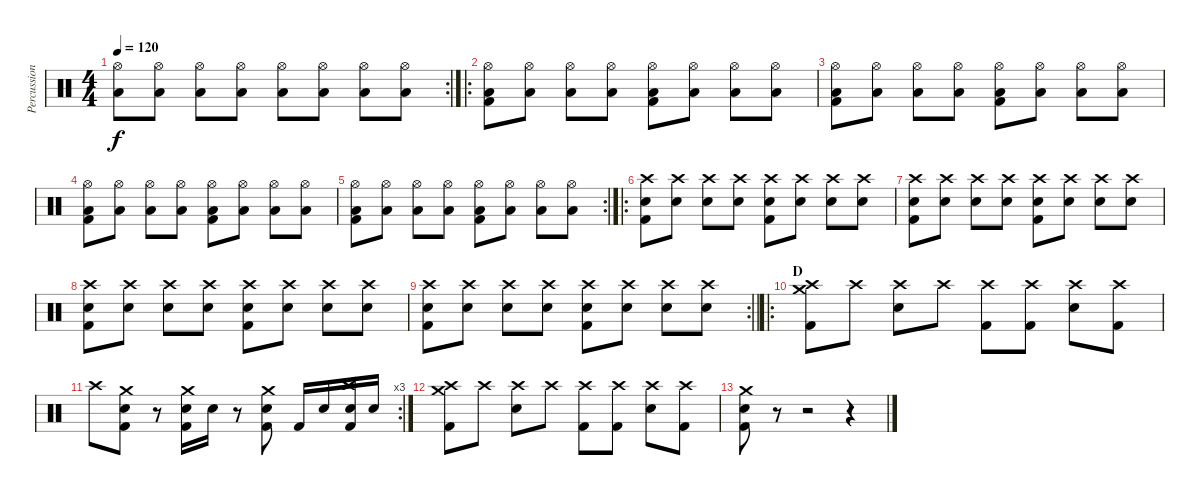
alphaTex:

\track ("Percussions" "Percussion") {instrument percussion}
\staff
\articulation defaults
\rc 2
\ts (4 4)
\tempo 120
\clef neutral
\ks c
("Hi-Hat (open)" "Low Tom (hit)").8{dy f} ("Hi-Hat (open)" "Low Tom (hit)").8 ("Hi-Hat (open)" "Low Tom (hit)").8 ("Hi-Hat (open)" "Low Tom (hit)").8 ("Hi-Hat (open)" "Low Tom (hit)").8 ("Hi-Hat (open)" "Low Tom (hit)").8 ("Hi-Hat (open)" "Low Tom (hit)").8 ("Hi-Hat (open)" "Low Tom (hit)").8 |
\ro
("Hi-Hat (open)" "Low Tom (hit)" "Kick (hit) 2").8 ("Hi-Hat (open)" "Low Tom (hit)").8 ("Hi-Hat (open)" "Low Tom (hit)").8 ("Hi-Hat (open)" "Low Tom (hit)").8 ("Hi-Hat (open)" "Low Tom (hit)" "Kick (hit) 2").8 ("Hi-Hat (open)" "Low Tom (hit)").8 ("Hi-Hat (open)" "Low Tom (hit)").8 ("Hi-Hat (open)" "Low Tom (hit)").8 |
("Hi-Hat (open)" "Low Tom (hit)" "Kick (hit) 2").8 ("Hi-Hat (open)" "Low Tom (hit)").8 ("Hi-Hat (open)" "Low Tom (hit)").8 ("Hi-Hat (open)" "Low Tom (hit)").8 ("Hi-Hat (open)" "Low Tom (hit)" "Kick (hit) 2").8 ("Hi-Hat (open)" "Low Tom (hit)").8 ("Hi-Hat (open)" "Low Tom (hit)").8 ("Hi-Hat (open)" "Low Tom (hit)").8 |
("Hi-Hat (open)" "Low Tom (hit)" "Kick (hit) 2").8 ("Hi-Hat (open)" "Low Tom (hit)").8 ("Hi-Hat (open)" "Low Tom (hit)").8 ("Hi-Hat (open)" "Low Tom (hit)").8 ("Hi-Hat (open)" "Low Tom (hit)" "Kick (hit) 2").8 ("Hi-Hat (open)" "Low Tom (hit)").8 ("Hi-Hat (open)" "Low Tom (hit)").8 ("Hi-Hat (open)" "Low Tom (hit)").8 |
\rc 2
("Hi-Hat (open)" "Low Tom (hit)" "Kick (hit) 2").8 ("Hi-Hat (open)" "Low Tom (hit)").8 ("Hi-Hat (open)" "Low Tom (hit)").8 ("Hi-Hat (open)" "Low Tom (hit)").8 ("Hi-Hat (open)" "Low Tom (hit)" "Kick (hit) 2").8 ("Hi-Hat (open)" "Low Tom (hit)").8 ("Hi-Hat (open)" "Low Tom (hit)").8 ("Hi-Hat (open)" "Low Tom (hit)").8 |
\ro
("Crash high (hit)" "Snare (hit) 2" "Kick (hit) 2").8 ("Crash high (hit)" "Snare (hit) 2").8 ("Crash high (hit)" "Snare (hit) 2").8 ("Crash high (hit)" "Snare (hit) 2").8 ("Crash high (hit)" "Snare (hit) 2" "Kick (hit) 2").8 ("Crash high (hit)" "Snare (hit) 2").8 ("Crash high (hit)" "Snare (hit) 2").8 ("Crash high (hit)" "Snare (hit) 2").8 |
("Crash high (hit)" "Snare (hit) 2" "Kick (hit) 2").8 ("Crash high (hit)" "Snare (hit) 2").8 ("Crash high (hit)" "Snare (hit) 2").8 ("Crash high (hit)" "Snare (hit) 2").8 ("Crash high (hit)" "Snare (hit) 2" "Kick (hit) 2").8 ("Crash high (hit)" "Snare (hit) 2").8 ("Crash high (hit)" "Snare (hit) 2").8 ("Crash high (hit)" "Snare (hit) 2").8 |
("Crash high (hit)" "Snare (hit) 2" "Kick (hit) 2").8 ("Crash high (hit)" "Snare (hit) 2").8 ("Crash high (hit)" "Snare (hit) 2").8 ("Crash high (hit)" "Snare (hit) 2").8 ("Crash high (hit)" "Snare (hit) 2" "Kick (hit) 2").8 ("Crash high (hit)" "Snare (hit) 2").8 ("Crash high (hit)" "Snare (hit) 2").8 ("Crash high (hit)" "Snare (hit) 2").8 |
\rc 2
\barLineRight lightlight
("Crash high (hit)" "Snare (hit) 2" "Kick (hit) 2").8 ("Crash high (hit)" "Snare (hit) 2").8 ("Crash high (hit)" "Snare (hit) 2").8 ("Crash high (hit)" "Snare (hit) 2").8 ("Crash high (hit)" "Snare (hit) 2" "Kick (hit) 2").8 ("Crash high (hit)" "Snare (hit) 2").8 ("Crash high (hit)" "Snare (hit) 2").8 ("Crash high (hit)" "Snare (hit) 2").8 |
\ro
\section ("" "D")
("Crash medium (hit)" "Crash high (hit)" "Kick (hit) 2").8 "Crash high (hit)".8 ("Crash high (hit)" "Snare (hit) 2").8 "Crash high (hit)".8 ("Crash high (hit)" "Kick (hit) 2").8 ("Crash high (hit)" "Kick (hit) 2").8 ("Crash high (hit)" "Snare (hit) 2").8 ("Crash high (hit)" "Kick (hit) 2").8 |
\rc 3 "Crash high (hit)".8
("Crash medium (hit)" "Snare (hit) 2" "Kick (hit) 2").8 r.8 ("Crash medium (hit)" "Snare (hit) 2" "Kick (hit) 2").16 "Snare (hit) 2".16 r.8 ("Crash medium (hit)" "Snare (hit) 2" "Kick (hit) 2").8 "Kick (hit) 2".16 "Snare (hit) 2".16 ("Crash high (hit)" "Snare (hit) 2" "Kick (hit) 2").16 "Snare (hit) 2".16 |
("Crash medium (hit)" "Crash high (hit)" "Kick (hit) 2").8 "Crash high (hit)".8 ("Crash high (hit)" "Snare (hit) 2").8 "Crash high (hit)".8 ("Crash high (hit)" "Kick (hit) 2").8 ("Crash high (hit)" "Kick (hit) 2").8 ("Crash high (hit)" "Snare (hit) 2").8 ("Crash high (hit)" "Kick (hit) 2").8 |
("Crash medium (hit)" "Snare (hit) 2" "Kick (hit) 2").8 r.8 r.2 r.4
